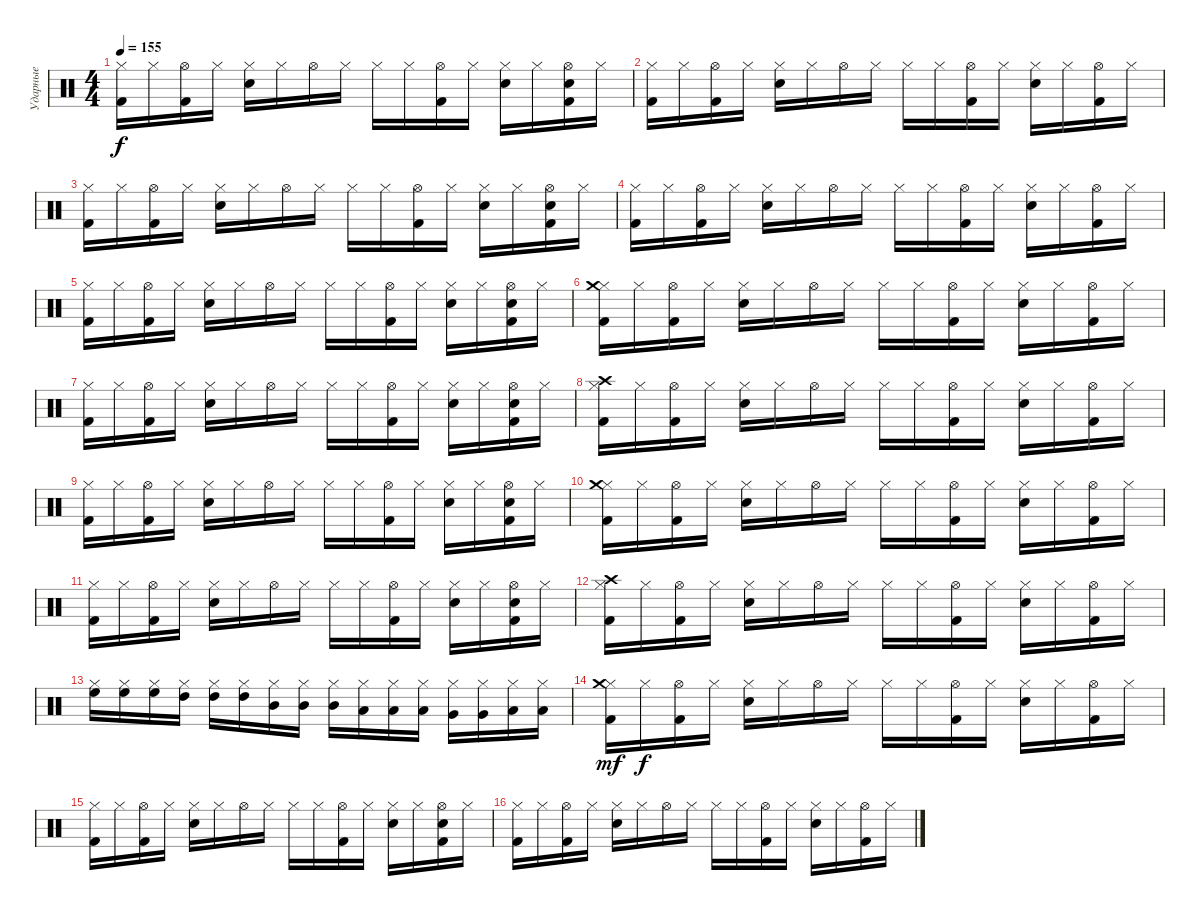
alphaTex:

\track ("Ударные" "Ударные") {instrument percussion}
\staff {score}
\articulation defaults
\ts (4 4)
\tempo 155
\clef neutral
\ks c
("Hi-Hat (closed)" "Kick (hit) 2").16{dy f} "Hi-Hat (closed)".16 ("Hi-Hat (open)" "Kick (hit) 2").16 "Hi-Hat (closed)".16 ("Hi-Hat (closed)" "Electric Snare (hit)").16 "Hi-Hat (closed)".16 "Hi-Hat (open)".16 "Hi-Hat (closed)".16 "Hi-Hat (closed)".16 "Hi-Hat (closed)".16 ("Hi-Hat (open)" "Kick (hit) 2").16 "Hi-Hat (closed)".16 ("Hi-Hat (closed)" "Electric Snare (hit)").16 "Hi-Hat (closed)".16 ("Hi-Hat (open)" "Kick (hit) 2" "Electric Snare (hit)").16 "Hi-Hat (closed)".16 |
("Hi-Hat (closed)" "Kick (hit) 2").16 "Hi-Hat (closed)".16 ("Hi-Hat (open)" "Kick (hit) 2").16 "Hi-Hat (closed)".16 ("Hi-Hat (closed)" "Electric Snare (hit)").16 "Hi-Hat (closed)".16 "Hi-Hat (open)".16 "Hi-Hat (closed)".16 "Hi-Hat (closed)".16 "Hi-Hat (closed)".16 ("Hi-Hat (open)" "Kick (hit) 2").16 "Hi-Hat (closed)".16 ("Hi-Hat (closed)" "Electric Snare (hit)").16 "Hi-Hat (closed)".16 ("Hi-Hat (open)" "Kick (hit) 2").16 "Hi-Hat (closed)".16 |
("Hi-Hat (closed)" "Kick (hit) 2").16 "Hi-Hat (closed)".16 ("Hi-Hat (open)" "Kick (hit) 2").16 "Hi-Hat (closed)".16 ("Hi-Hat (closed)" "Electric Snare (hit)").16 "Hi-Hat (closed)".16 "Hi-Hat (open)".16 "Hi-Hat (closed)".16 "Hi-Hat (closed)".16 "Hi-Hat (closed)".16 ("Hi-Hat (open)" "Kick (hit) 2").16 "Hi-Hat (closed)".16 ("Hi-Hat (closed)" "Electric Snare (hit)").16 "Hi-Hat (closed)".16 ("Hi-Hat (open)" "Kick (hit) 2" "Electric Snare (hit)").16 "Hi-Hat (closed)".16 |
("Hi-Hat (closed)" "Kick (hit) 2").16 "Hi-Hat (closed)".16 ("Hi-Hat (open)" "Kick (hit) 2").16 "Hi-Hat (closed)".16 ("Hi-Hat (closed)" "Electric Snare (hit)").16 "Hi-Hat (closed)".16 "Hi-Hat (open)".16 "Hi-Hat (closed)".16 "Hi-Hat (closed)".16 "Hi-Hat (closed)".16 ("Hi-Hat (open)" "Kick (hit) 2").16 "Hi-Hat (closed)".16 ("Hi-Hat (closed)" "Electric Snare (hit)").16 "Hi-Hat (closed)".16 ("Hi-Hat (open)" "Kick (hit) 2").16 "Hi-Hat (closed)".16 |
("Hi-Hat (closed)" "Kick (hit) 2").16 "Hi-Hat (closed)".16 ("Hi-Hat (open)" "Kick (hit) 2").16 "Hi-Hat (closed)".16 ("Hi-Hat (closed)" "Electric Snare (hit)").16 "Hi-Hat (closed)".16 "Hi-Hat (open)".16 "Hi-Hat (closed)".16 "Hi-Hat (closed)".16 "Hi-Hat (closed)".16 ("Hi-Hat (open)" "Kick (hit) 2").16 "Hi-Hat (closed)".16 ("Hi-Hat (closed)" "Electric Snare (hit)").16 "Hi-Hat (closed)".16 ("Hi-Hat (open)" "Kick (hit) 2" "Electric Snare (hit)").16 "Hi-Hat (closed)".16 |
("Hi-Hat (closed)" "Kick (hit) 2" "Crash medium (hit)").16 "Hi-Hat (closed)".16 ("Hi-Hat (open)" "Kick (hit) 2").16 "Hi-Hat (closed)".16 ("Hi-Hat (closed)" "Electric Snare (hit)").16 "Hi-Hat (closed)".16 "Hi-Hat (open)".16 "Hi-Hat (closed)".16 "Hi-Hat (closed)".16 "Hi-Hat (closed)".16 ("Hi-Hat (open)" "Kick (hit) 2").16 "Hi-Hat (closed)".16 ("Hi-Hat (closed)" "Electric Snare (hit)").16 "Hi-Hat (closed)".16 ("Hi-Hat (open)" "Kick (hit) 2").16 "Hi-Hat (closed)".16 |
("Hi-Hat (closed)" "Kick (hit) 2").16 "Hi-Hat (closed)".16 ("Hi-Hat (open)" "Kick (hit) 2").16 "Hi-Hat (closed)".16 ("Hi-Hat (closed)" "Electric Snare (hit)").16 "Hi-Hat (closed)".16 "Hi-Hat (open)".16 "Hi-Hat (closed)".16 "Hi-Hat (closed)".16 "Hi-Hat (closed)".16 ("Hi-Hat (open)" "Kick (hit) 2").16 "Hi-Hat (closed)".16 ("Hi-Hat (closed)" "Electric Snare (hit)").16 "Hi-Hat (closed)".16 ("Hi-Hat (open)" "Kick (hit) 2" "Electric Snare (hit)").16 "Hi-Hat (closed)".16 |
("Hi-Hat (closed)" "Kick (hit) 2" "Crash high (hit)").16 "Hi-Hat (closed)".16 ("Hi-Hat (open)" "Kick (hit) 2").16 "Hi-Hat (closed)".16 ("Hi-Hat (closed)" "Electric Snare (hit)").16 "Hi-Hat (closed)".16 "Hi-Hat (open)".16 "Hi-Hat (closed)".16 "Hi-Hat (closed)".16 "Hi-Hat (closed)".16 ("Hi-Hat (open)" "Kick (hit) 2").16 "Hi-Hat (closed)".16 ("Hi-Hat (closed)" "Electric Snare (hit)").16 "Hi-Hat (closed)".16 ("Hi-Hat (open)" "Kick (hit) 2").16 "Hi-Hat (closed)".16 |
("Hi-Hat (closed)" "Kick (hit) 2").16 "Hi-Hat (closed)".16 ("Hi-Hat (open)" "Kick (hit) 2").16 "Hi-Hat (closed)".16 ("Hi-Hat (closed)" "Electric Snare (hit)").16 "Hi-Hat (closed)".16 "Hi-Hat (open)".16 "Hi-Hat (closed)".16 "Hi-Hat (closed)".16 "Hi-Hat (closed)".16 ("Hi-Hat (open)" "Kick (hit) 2").16 "Hi-Hat (closed)".16 ("Hi-Hat (closed)" "Electric Snare (hit)").16 "Hi-Hat (closed)".16 ("Hi-Hat (open)" "Kick (hit) 2" "Electric Snare (hit)").16 "Hi-Hat (closed)".16 |
("Hi-Hat (closed)" "Kick (hit) 2" "Crash medium (hit)").16 "Hi-Hat (closed)".16 ("Hi-Hat (open)" "Kick (hit) 2").16 "Hi-Hat (closed)".16 ("Hi-Hat (closed)" "Electric Snare (hit)").16 "Hi-Hat (closed)".16 "Hi-Hat (open)".16 "Hi-Hat (closed)".16 "Hi-Hat (closed)".16 "Hi-Hat (closed)".16 ("Hi-Hat (open)" "Kick (hit) 2").16 "Hi-Hat (closed)".16 ("Hi-Hat (closed)" "Electric Snare (hit)").16 "Hi-Hat (closed)".16 ("Hi-Hat (open)" "Kick (hit) 2").16 "Hi-Hat (closed)".16 |
("Hi-Hat (closed)" "Kick (hit) 2").16 "Hi-Hat (closed)".16 ("Hi-Hat (open)" "Kick (hit) 2").16 "Hi-Hat (closed)".16 ("Hi-Hat (closed)" "Electric Snare (hit)").16 "Hi-Hat (closed)".16 "Hi-Hat (open)".16 "Hi-Hat (closed)".16 "Hi-Hat (closed)".16 "Hi-Hat (closed)".16 ("Hi-Hat (open)" "Kick (hit) 2").16 "Hi-Hat (closed)".16 ("Hi-Hat (closed)" "Electric Snare (hit)").16 "Hi-Hat (closed)".16 ("Hi-Hat (open)" "Kick (hit) 2" "Electric Snare (hit)").16 "Hi-Hat (closed)".16 |
("Hi-Hat (closed)" "Kick (hit) 2" "Crash high (hit)").16 "Hi-Hat (closed)".16 ("Hi-Hat (open)" "Kick (hit) 2").16 "Hi-Hat (closed)".16 ("Hi-Hat (closed)" "Electric Snare (hit)").16 "Hi-Hat (closed)".16 "Hi-Hat (open)".16 "Hi-Hat (closed)".16 "Hi-Hat (closed)".16 "Hi-Hat (closed)".16 ("Hi-Hat (open)" "Kick (hit) 2").16 "Hi-Hat (closed)".16 ("Hi-Hat (closed)" "Electric Snare (hit)").16 "Hi-Hat (closed)".16 ("Hi-Hat (open)" "Kick (hit) 2").16 "Hi-Hat (closed)".16 |
("Hi-Hat (closed)" "High Floor Tom (hit)").16 ("Hi-Hat (closed)" "High Floor Tom (hit)").16 ("Hi-Hat (closed)" "High Floor Tom (hit)").16 ("Hi-Hat (closed)" "High Tom (hit)").16 ("Hi-Hat (closed)" "High Tom (hit)").16 ("Hi-Hat (closed)" "High Tom (hit)").16 ("Hi-Hat (closed)" "Mid Tom (hit)").16 ("Hi-Hat (closed)" "Mid Tom (hit)").16 ("Hi-Hat (closed)" "Mid Tom (hit)").16 ("Hi-Hat (closed)" "Low Tom (hit)").16 ("Hi-Hat (closed)" "Low Tom (hit)").16 ("Hi-Hat (closed)" "Low Tom (hit)").16 ("Hi-Hat (closed)" "Very Low Tom (hit)").16 ("Hi-Hat (closed)" "Very Low Tom (hit)").16 ("Hi-Hat (closed)" "Low Floor Tom (hit)").16 ("Hi-Hat (closed)" "Low Floor Tom (hit)").16 |
("Hi-Hat (closed)" "Kick (hit) 2" "Crash medium (hit)").16{dy mf} "Hi-Hat (closed)".16{dy f} ("Hi-Hat (open)" "Kick (hit) 2").16 "Hi-Hat (closed)".16 ("Hi-Hat (closed)" "Electric Snare (hit)").16 "Hi-Hat (closed)".16 "Hi-Hat (open)".16 "Hi-Hat (closed)".16 "Hi-Hat (closed)".16 "Hi-Hat (closed)".16 ("Hi-Hat (open)" "Kick (hit) 2").16 "Hi-Hat (closed)".16 ("Hi-Hat (closed)" "Electric Snare (hit)").16 "Hi-Hat (closed)".16 ("Hi-Hat (open)" "Kick (hit) 2").16 "Hi-Hat (closed)".16 |
("Hi-Hat (closed)" "Kick (hit) 2").16 "Hi-Hat (closed)".16 ("Hi-Hat (open)" "Kick (hit) 2").16 "Hi-Hat (closed)".16 ("Hi-Hat (closed)" "Electric Snare (hit)").16 "Hi-Hat (closed)".16 "Hi-Hat (open)".16 "Hi-Hat (closed)".16 "Hi-Hat (closed)".16 "Hi-Hat (closed)".16 ("Hi-Hat (open)" "Kick (hit) 2").16 "Hi-Hat (closed)".16 ("Hi-Hat (closed)" "Electric Snare (hit)").16 "Hi-Hat (closed)".16 ("Hi-Hat (open)" "Kick (hit) 2" "Electric Snare (hit)").16 "Hi-Hat (closed)".16 |
("Hi-Hat (closed)" "Kick (hit) 2").16 "Hi-Hat (closed)".16 ("Hi-Hat (open)" "Kick (hit) 2").16 "Hi-Hat (closed)".16 ("Hi-Hat (closed)" "Electric Snare (hit)").16 "Hi-Hat (closed)".16 "Hi-Hat (open)".16 "Hi-Hat (closed)".16 "Hi-Hat (closed)".16 "Hi-Hat (closed)".16 ("Hi-Hat (open)" "Kick (hit) 2").16 "Hi-Hat (closed)".16 ("Hi-Hat (closed)" "Electric Snare (hit)").16 "Hi-Hat (closed)".16 ("Hi-Hat (open)" "Kick (hit) 2").16 "Hi-Hat (closed)".16
